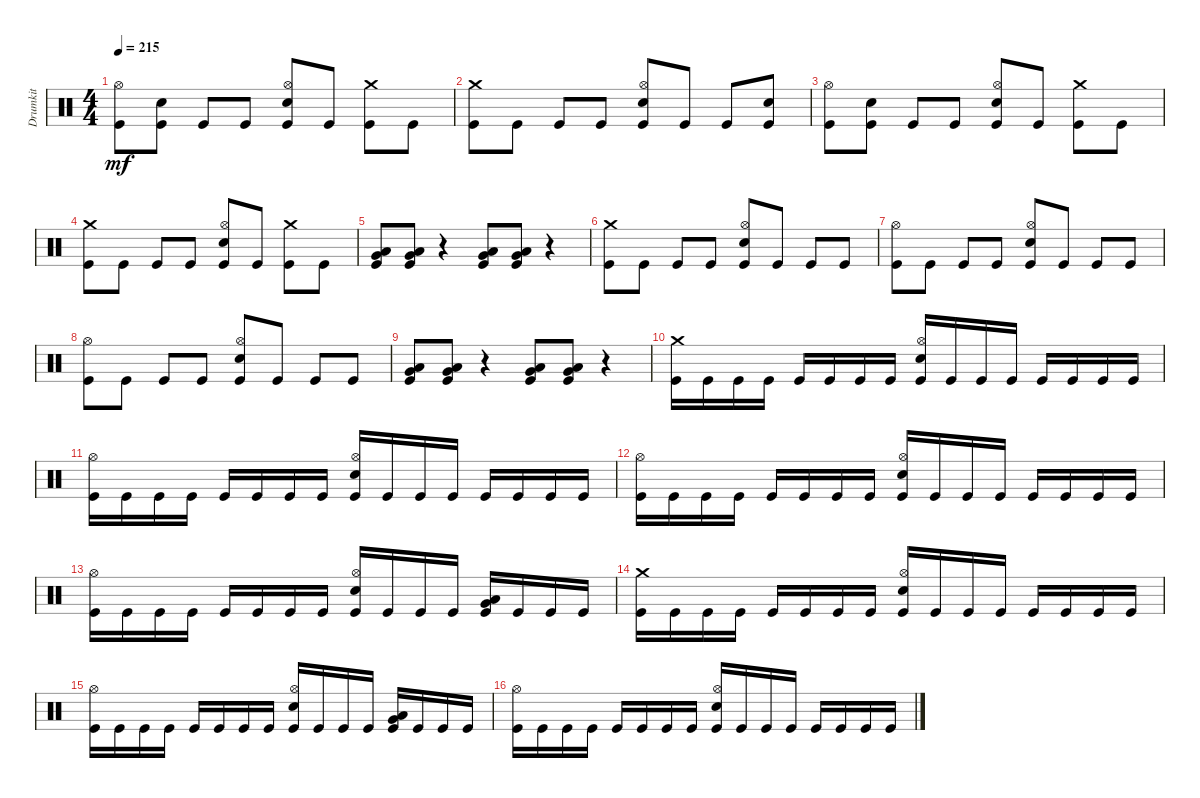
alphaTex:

\track ("Drumkit" "Drumkit") {instrument percussion}
\staff {score}
\articulation defaults
\ts (4 4)
\tempo 215
\clef neutral
\ks c
("Kick (hit)" "Hi-Hat (open)").8{dy mf} ("Kick (hit)" "Snare (hit) 2").8 "Kick (hit)".8 "Kick (hit)".8 ("Kick (hit)" "Snare (hit) 2" "Hi-Hat (open)").8 "Kick (hit)".8 ("Kick (hit)" "Crash medium (hit)").8 "Kick (hit)".8 |
("Kick (hit)" "Crash medium (hit)").8 "Kick (hit)".8 "Kick (hit)".8 "Kick (hit)".8 ("Kick (hit)" "Snare (hit) 2" "Hi-Hat (open)").8 "Kick (hit)".8 "Kick (hit)".8 ("Kick (hit)" "Snare (hit) 2").8 |
("Kick (hit)" "Hi-Hat (open)").8 ("Kick (hit)" "Snare (hit) 2").8 "Kick (hit)".8 "Kick (hit)".8 ("Kick (hit)" "Snare (hit) 2" "Hi-Hat (open)").8 "Kick (hit)".8 ("Kick (hit)" "Crash medium (hit)").8 "Kick (hit)".8 |
("Kick (hit)" "Crash medium (hit)").8 "Kick (hit)".8 "Kick (hit)".8 "Kick (hit)".8 ("Kick (hit)" "Snare (hit) 2" "Hi-Hat (open)").8 "Kick (hit)".8 ("Kick (hit)" "Crash medium (hit)").8 "Kick (hit)".8 |
("Kick (hit)" "Very Low Tom (hit)" "Low Tom (hit)").8 ("Kick (hit)" "Very Low Tom (hit)" "Low Tom (hit)").8 r.4 ("Kick (hit)" "Very Low Tom (hit)" "Low Tom (hit)").8 ("Kick (hit)" "Very Low Tom (hit)" "Low Tom (hit)").8 r.4 |
("Kick (hit)" "Crash medium (hit)").8 "Kick (hit)".8 "Kick (hit)".8 "Kick (hit)".8 ("Kick (hit)" "Snare (hit) 2" "Hi-Hat (open)").8 "Kick (hit)".8 "Kick (hit)".8 "Kick (hit)".8 |
("Kick (hit)" "Hi-Hat (open)").8 "Kick (hit)".8 "Kick (hit)".8 "Kick (hit)".8 ("Kick (hit)" "Snare (hit) 2" "Hi-Hat (open)").8 "Kick (hit)".8 "Kick (hit)".8 "Kick (hit)".8 |
("Kick (hit)" "Hi-Hat (open)").8 "Kick (hit)".8 "Kick (hit)".8 "Kick (hit)".8 ("Kick (hit)" "Snare (hit) 2" "Hi-Hat (open)").8 "Kick (hit)".8 "Kick (hit)".8 "Kick (hit)".8 |
("Kick (hit)" "Very Low Tom (hit)" "Low Tom (hit)").8 ("Kick (hit)" "Very Low Tom (hit)" "Low Tom (hit)").8 r.4 ("Kick (hit)" "Very Low Tom (hit)" "Low Tom (hit)").8 ("Kick (hit)" "Very Low Tom (hit)" "Low Tom (hit)").8 r.4 |
("Kick (hit)" "Crash medium (hit)").16 "Kick (hit)".16 "Kick (hit)".16 "Kick (hit)".16 "Kick (hit)".16 "Kick (hit)".16 "Kick (hit)".16 "Kick (hit)".16 ("Kick (hit)" "Hi-Hat (open)" "Snare (hit) 2").16 "Kick (hit)".16 "Kick (hit)".16 "Kick (hit)".16 "Kick (hit)".16 "Kick (hit)".16 "Kick (hit)".16 "Kick (hit)".16 |
("Kick (hit)" "Hi-Hat (open)").16 "Kick (hit)".16 "Kick (hit)".16 "Kick (hit)".16 "Kick (hit)".16 "Kick (hit)".16 "Kick (hit)".16 "Kick (hit)".16 ("Kick (hit)" "Hi-Hat (open)" "Snare (hit) 2").16 "Kick (hit)".16 "Kick (hit)".16 "Kick (hit)".16 "Kick (hit)".16 "Kick (hit)".16 "Kick (hit)".16 "Kick (hit)".16 |
("Kick (hit)" "Hi-Hat (open)").16 "Kick (hit)".16 "Kick (hit)".16 "Kick (hit)".16 "Kick (hit)".16 "Kick (hit)".16 "Kick (hit)".16 "Kick (hit)".16 ("Kick (hit)" "Hi-Hat (open)" "Snare (hit) 2").16 "Kick (hit)".16 "Kick (hit)".16 "Kick (hit)".16 "Kick (hit)".16 "Kick (hit)".16 "Kick (hit)".16 "Kick (hit)".16 |
("Kick (hit)" "Hi-Hat (open)").16 "Kick (hit)".16 "Kick (hit)".16 "Kick (hit)".16 "Kick (hit)".16 "Kick (hit)".16 "Kick (hit)".16 "Kick (hit)".16 ("Kick (hit)" "Snare (hit) 2" "Hi-Hat (open)").16 "Kick (hit)".16 "Kick (hit)".16 "Kick (hit)".16 ("Kick (hit)" "Low Floor Tom (hit)" "Very Low Tom (hit)").16 "Kick (hit)".16 "Kick (hit)".16 "Kick (hit)".16 |
("Kick (hit)" "Crash medium (hit)").16 "Kick (hit)".16 "Kick (hit)".16 "Kick (hit)".16 "Kick (hit)".16 "Kick (hit)".16 "Kick (hit)".16 "Kick (hit)".16 ("Kick (hit)" "Hi-Hat (open)" "Snare (hit) 2").16 "Kick (hit)".16 "Kick (hit)".16 "Kick (hit)".16 "Kick (hit)".16 "Kick (hit)".16 "Kick (hit)".16 "Kick (hit)".16 |
("Kick (hit)" "Hi-Hat (open)").16 "Kick (hit)".16 "Kick (hit)".16 "Kick (hit)".16 "Kick (hit)".16 "Kick (hit)".16 "Kick (hit)".16 "Kick (hit)".16 ("Kick (hit)" "Snare (hit) 2" "Hi-Hat (open)").16 "Kick (hit)".16 "Kick (hit)".16 "Kick (hit)".16 ("Kick (hit)" "Low Floor Tom (hit)" "Very Low Tom (hit)").16 "Kick (hit)".16 "Kick (hit)".16 "Kick (hit)".16 |
("Kick (hit)" "Hi-Hat (open)").16 "Kick (hit)".16 "Kick (hit)".16 "Kick (hit)".16 "Kick (hit)".16 "Kick (hit)".16 "Kick (hit)".16 "Kick (hit)".16 ("Kick (hit)" "Hi-Hat (open)" "Snare (hit) 2").16 "Kick (hit)".16 "Kick (hit)".16 "Kick (hit)".16 "Kick (hit)".16 "Kick (hit)".16 "Kick (hit)".16 "Kick (hit)".16
